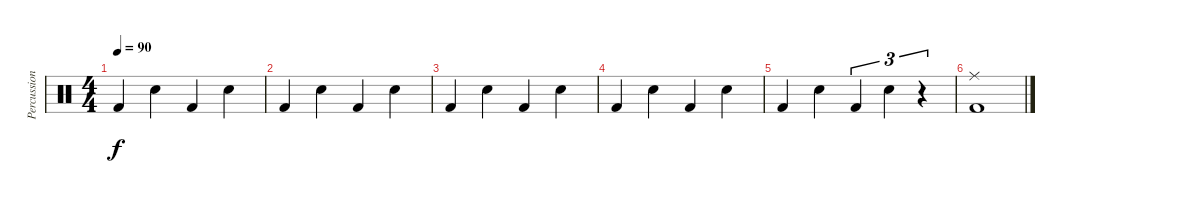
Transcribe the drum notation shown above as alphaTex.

\track ("Percussion" "Percussion") {instrument percussion}
\staff {score}
\articulation defaults
\ts (4 4)
\tempo 90
\clef neutral
\ks c "Kick (hit) 2".4{dy f} "Snare (hit) 2".4 "Kick (hit) 2".4 "Snare (hit) 2".4
|
"Kick (hit) 2".4 "Snare (hit) 2".4 "Kick (hit) 2".4 "Snare (hit) 2".4 |
"Kick (hit) 2".4 "Snare (hit) 2".4 "Kick (hit) 2".4 "Snare (hit) 2".4 |
"Kick (hit) 2".4 "Snare (hit) 2".4 "Kick (hit) 2".4 "Snare (hit) 2".4 |
"Kick (hit) 2".4 "Snare (hit) 2".4 "Kick (hit) 2".4{tu (3 2)} "Snare (hit) 2".4{tu (3 2)} r.4{tu (3 2)} |
("Ride (middle)" "Kick (hit) 2").1
